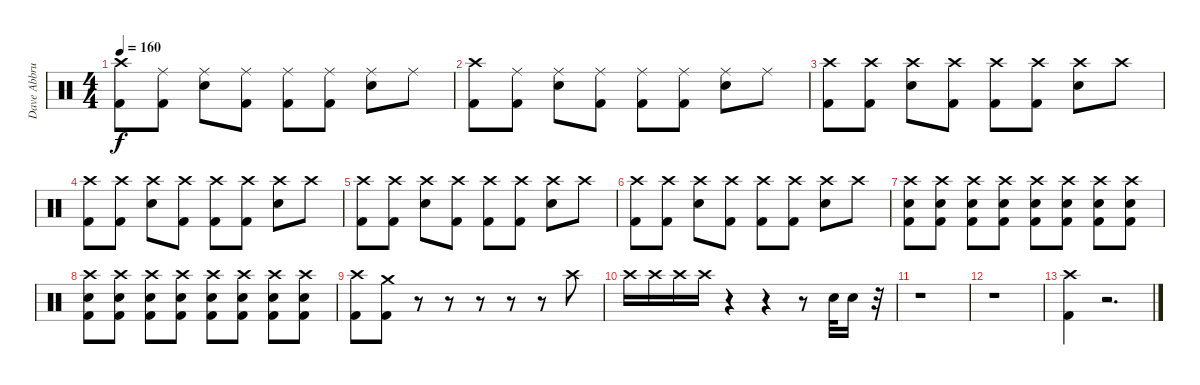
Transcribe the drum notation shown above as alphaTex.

\track ("Dave Abbruzzese" "Dave Abbru") {instrument percussion}
\staff {score}
\articulation defaults
\ts (4 4)
\tempo 160
\clef neutral
\ks c
("Crash high (hit)" "Kick (hit) 2").8{dy f} ("Ride (middle)" "Kick (hit) 2").8 ("Ride (middle)" "Snare (hit) 2").8 ("Ride (middle)" "Kick (hit) 2").8 ("Ride (middle)" "Kick (hit) 2").8 ("Ride (middle)" "Kick (hit) 2").8 ("Ride (middle)" "Snare (hit) 2").8 "Ride (middle)".8 |
("Crash high (hit)" "Kick (hit) 2").8 ("Ride (middle)" "Kick (hit) 2").8 ("Ride (middle)" "Snare (hit) 2").8 ("Ride (middle)" "Kick (hit) 2").8 ("Ride (middle)" "Kick (hit) 2").8 ("Ride (middle)" "Kick (hit) 2").8 ("Ride (middle)" "Snare (hit) 2").8 "Ride (middle)".8 |
("Crash high (hit)" "Kick (hit) 2").8 ("Crash high (hit)" "Kick (hit) 2").8 ("Crash high (hit)" "Snare (hit) 2").8 ("Crash high (hit)" "Kick (hit) 2").8 ("Crash high (hit)" "Kick (hit) 2").8 ("Crash high (hit)" "Kick (hit) 2").8 ("Crash high (hit)" "Snare (hit) 2").8 "Crash high (hit)".8 |
("Crash high (hit)" "Kick (hit) 2").8 ("Crash high (hit)" "Kick (hit) 2").8 ("Crash high (hit)" "Snare (hit) 2").8 ("Crash high (hit)" "Kick (hit) 2").8 ("Crash high (hit)" "Kick (hit) 2").8 ("Crash high (hit)" "Kick (hit) 2").8 ("Crash high (hit)" "Snare (hit) 2").8 "Crash high (hit)".8 |
("Crash high (hit)" "Kick (hit) 2").8 ("Crash high (hit)" "Kick (hit) 2").8 ("Crash high (hit)" "Snare (hit) 2").8 ("Crash high (hit)" "Kick (hit) 2").8 ("Crash high (hit)" "Kick (hit) 2").8 ("Crash high (hit)" "Kick (hit) 2").8 ("Crash high (hit)" "Snare (hit) 2").8 "Crash high (hit)".8 |
("Crash high (hit)" "Kick (hit) 2").8 ("Crash high (hit)" "Kick (hit) 2").8 ("Crash high (hit)" "Snare (hit) 2").8 ("Crash high (hit)" "Kick (hit) 2").8 ("Crash high (hit)" "Kick (hit) 2").8 ("Crash high (hit)" "Kick (hit) 2").8 ("Crash high (hit)" "Snare (hit) 2").8 "Crash high (hit)".8 |
("Crash high (hit)" "Snare (hit) 2" "Kick (hit) 2").8 ("Crash high (hit)" "Snare (hit) 2" "Kick (hit) 2").8 ("Crash high (hit)" "Snare (hit) 2" "Kick (hit) 2").8 ("Crash high (hit)" "Snare (hit) 2" "Kick (hit) 2").8 ("Crash high (hit)" "Snare (hit) 2" "Kick (hit) 2").8 ("Crash high (hit)" "Snare (hit) 2" "Kick (hit) 2").8 ("Crash high (hit)" "Snare (hit) 2" "Kick (hit) 2").8 ("Crash high (hit)" "Snare (hit) 2" "Kick (hit) 2").8 |
("Crash high (hit)" "Snare (hit) 2" "Kick (hit) 2").8 ("Crash high (hit)" "Snare (hit) 2" "Kick (hit) 2").8 ("Crash high (hit)" "Snare (hit) 2" "Kick (hit) 2").8 ("Crash high (hit)" "Snare (hit) 2" "Kick (hit) 2").8 ("Crash high (hit)" "Snare (hit) 2" "Kick (hit) 2").8 ("Crash high (hit)" "Snare (hit) 2" "Kick (hit) 2").8 ("Crash high (hit)" "Snare (hit) 2" "Kick (hit) 2").8 ("Crash high (hit)" "Snare (hit) 2" "Kick (hit) 2").8 |
("Crash high (hit)" "Kick (hit) 2").8 ("Crash medium (hit)" "Kick (hit) 2").8 r.8 r.8 r.8 r.8 r.8 "Crash high (hit)".8 |
"Crash high (hit)".16 "Crash high (hit)".16 "Crash high (hit)".16 "Crash high (hit)".16 r.4 r.4 r.8 "Snare (hit) 2".32 "Snare (hit) 2".16 r.32 |
r.1 |
r.1 |
("Crash high (hit)" "Kick (hit) 2").4 r.2{d}
